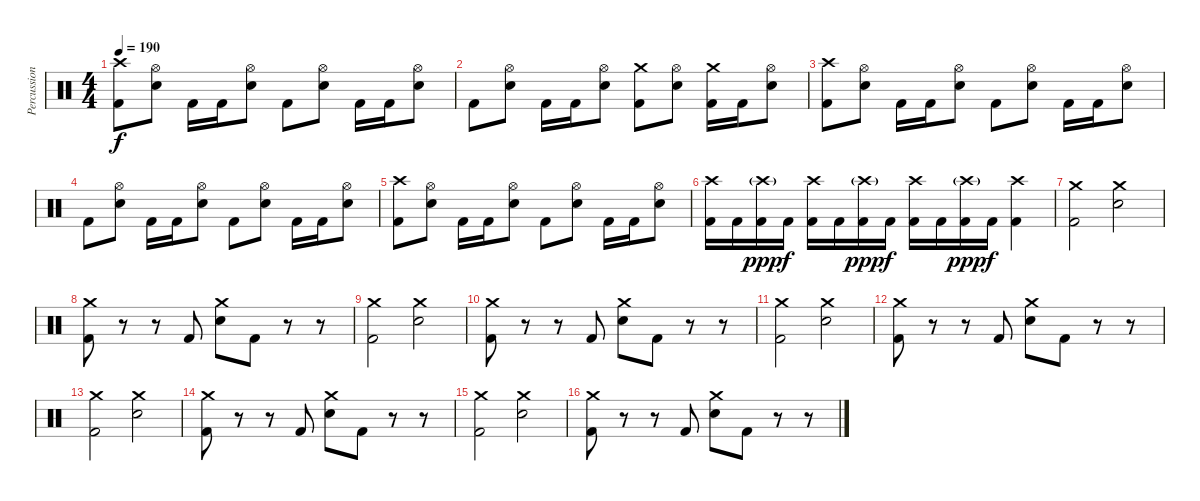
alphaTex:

\track ("Percussion" "Percussion") {instrument percussion}
\staff {score}
\articulation defaults
\ts (4 4)
\tempo 190
\clef neutral
\ks c
("Crash high (hit)" "Kick (hit) 2").8{dy f} ("Hi-Hat (open)" "Electric Snare (hit)").8 "Kick (hit) 2".16 "Kick (hit) 2".16 ("Hi-Hat (open)" "Electric Snare (hit)").8 "Kick (hit) 2".8 ("Hi-Hat (open)" "Electric Snare (hit)").8 "Kick (hit) 2".16 "Kick (hit) 2".16 ("Hi-Hat (open)" "Electric Snare (hit)").8 |
"Kick (hit) 2".8 ("Hi-Hat (open)" "Electric Snare (hit)").8 "Kick (hit) 2".16 "Kick (hit) 2".16 ("Hi-Hat (open)" "Electric Snare (hit)").8 ("Crash medium (hit)" "Kick (hit) 2").8 ("Hi-Hat (open)" "Electric Snare (hit)").8 ("Crash medium (hit)" "Kick (hit) 2").16 "Kick (hit) 2".16 ("Hi-Hat (open)" "Electric Snare (hit)").8 |
("Crash high (hit)" "Kick (hit) 2").8 ("Hi-Hat (open)" "Electric Snare (hit)").8 "Kick (hit) 2".16 "Kick (hit) 2".16 ("Hi-Hat (open)" "Electric Snare (hit)").8 "Kick (hit) 2".8 ("Hi-Hat (open)" "Electric Snare (hit)").8 "Kick (hit) 2".16 "Kick (hit) 2".16 ("Hi-Hat (open)" "Electric Snare (hit)").8 |
"Kick (hit) 2".8 ("Hi-Hat (open)" "Electric Snare (hit)").8 "Kick (hit) 2".16 "Kick (hit) 2".16 ("Hi-Hat (open)" "Electric Snare (hit)").8 "Kick (hit) 2".8 ("Hi-Hat (open)" "Electric Snare (hit)").8 "Kick (hit) 2".16 "Kick (hit) 2".16 ("Hi-Hat (open)" "Electric Snare (hit)").8 |
("Crash high (hit)" "Kick (hit) 2").8 ("Hi-Hat (open)" "Electric Snare (hit)").8 "Kick (hit) 2".16 "Kick (hit) 2".16 ("Hi-Hat (open)" "Electric Snare (hit)").8 "Kick (hit) 2".8 ("Hi-Hat (open)" "Electric Snare (hit)").8 "Kick (hit) 2".16 "Kick (hit) 2".16 ("Hi-Hat (open)" "Electric Snare (hit)").8 |
("Crash high (hit)" "Kick (hit) 2").16 "Kick (hit) 2".16 ("Crash high (hit)"{g} "Kick (hit) 2").16{dy ppp} "Kick (hit) 2".16{dy f} ("Crash high (hit)" "Kick (hit) 2").16 "Kick (hit) 2".16 ("Crash high (hit)"{g} "Kick (hit) 2").16{dy ppp} "Kick (hit) 2".16{dy f} ("Crash high (hit)" "Kick (hit) 2").16 "Kick (hit) 2".16 ("Crash high (hit)"{g} "Kick (hit) 2").16{dy ppp} "Kick (hit) 2".16{dy f} ("Crash high (hit)" "Kick (hit) 2").4 |
("Crash medium (hit)" "Kick (hit) 2").2 ("Crash medium (hit)" "Electric Snare (hit)").2 |
("Crash medium (hit)" "Kick (hit) 2").8 r.8 r.8 "Kick (hit) 2".8 ("Crash medium (hit)" "Electric Snare (hit)").8 "Kick (hit) 2".8 r.8 r.8 |
("Crash medium (hit)" "Kick (hit) 2").2 ("Crash medium (hit)" "Electric Snare (hit)").2 |
("Crash medium (hit)" "Kick (hit) 2").8 r.8 r.8 "Kick (hit) 2".8 ("Crash medium (hit)" "Electric Snare (hit)").8 "Kick (hit) 2".8 r.8 r.8 |
("Crash medium (hit)" "Kick (hit) 2").2 ("Crash medium (hit)" "Electric Snare (hit)").2 |
("Crash medium (hit)" "Kick (hit) 2").8 r.8 r.8 "Kick (hit) 2".8 ("Crash medium (hit)" "Electric Snare (hit)").8 "Kick (hit) 2".8 r.8 r.8 |
("Crash medium (hit)" "Kick (hit) 2").2 ("Crash medium (hit)" "Electric Snare (hit)").2 |
("Crash medium (hit)" "Kick (hit) 2").8 r.8 r.8 "Kick (hit) 2".8 ("Crash medium (hit)" "Electric Snare (hit)").8 "Kick (hit) 2".8 r.8 r.8 |
("Crash medium (hit)" "Kick (hit) 2").2 ("Crash medium (hit)" "Electric Snare (hit)").2 |
("Crash medium (hit)" "Kick (hit) 2").8 r.8 r.8 "Kick (hit) 2".8 ("Crash medium (hit)" "Electric Snare (hit)").8 "Kick (hit) 2".8 r.8 r.8
